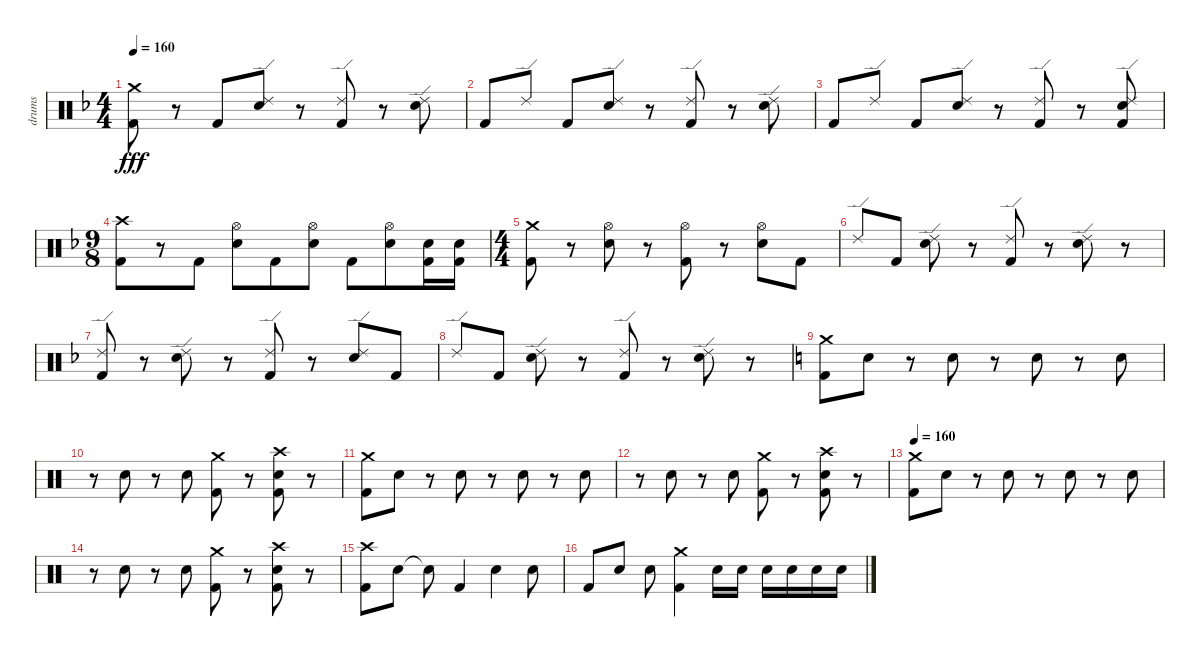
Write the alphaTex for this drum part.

\track ("drums" "drums") {instrument percussion}
\staff {score}
\articulation defaults
\ts (4 4)
\tempo 160
\clef neutral
\ks f
("Crash medium (hit)" "Kick (hit) 2").8{dy fff} r.8 "Kick (hit) 2".8 ("Ride (edge) 2" "Electric Snare (hit)").8 r.8 ("Ride (edge) 2" "Kick (hit) 2").8 r.8 ("Ride (edge) 2" "Electric Snare (hit)").8 |
"Kick (hit) 2".8 "Ride (edge) 2".8 "Kick (hit) 2".8 ("Ride (edge) 2" "Electric Snare (hit)").8 r.8 ("Ride (edge) 2" "Kick (hit) 2").8 r.8 ("Ride (edge) 2" "Electric Snare (hit)").8 |
"Kick (hit) 2".8 "Ride (edge) 2".8 "Kick (hit) 2".8 ("Ride (edge) 2" "Electric Snare (hit)").8 r.8 ("Ride (edge) 2" "Kick (hit) 2").8 r.8 ("Ride (edge) 2" "Electric Snare (hit)" "Kick (hit) 2").8 |
\ts (9 8)
("Crash high (hit)" "Kick (hit) 2").8 r.8 "Kick (hit) 2".8 ("Hi-Hat (open)" "Electric Snare (hit)").8 "Kick (hit) 2".8 ("Hi-Hat (open)" "Electric Snare (hit)").8 "Kick (hit) 2".8 ("Hi-Hat (open)" "Electric Snare (hit)").8 ("Electric Snare (hit)" "Kick (hit) 2").16 ("Electric Snare (hit)" "Kick (hit) 2").16 |
\ts (4 4)
("Crash medium (hit)" "Kick (hit) 2").8 r.8 ("Hi-Hat (open)" "Electric Snare (hit)").8 r.8 ("Hi-Hat (open)" "Kick (hit) 2").8 r.8 ("Hi-Hat (open)" "Electric Snare (hit)").8 "Kick (hit) 2".8 |
"Ride (edge) 2".8 "Kick (hit) 2".8 ("Ride (edge) 2" "Electric Snare (hit)").8 r.8 ("Ride (edge) 2" "Kick (hit) 2").8 r.8 ("Ride (edge) 2" "Electric Snare (hit)").8 r.8 |
("Ride (edge) 2" "Kick (hit) 2").8 r.8 ("Ride (edge) 2" "Electric Snare (hit)").8 r.8 ("Ride (edge) 2" "Kick (hit) 2").8 r.8 ("Ride (edge) 2" "Electric Snare (hit)").8 "Kick (hit) 2".8 |
"Ride (edge) 2".8 "Kick (hit) 2".8 ("Ride (edge) 2" "Electric Snare (hit)").8 r.8 ("Ride (edge) 2" "Kick (hit) 2").8 r.8 ("Ride (edge) 2" "Electric Snare (hit)").8 r.8 |
\ks c
("Crash medium (hit)" "Kick (hit) 2").8 "Electric Snare (hit)".8 r.8 "Electric Snare (hit)".8 r.8 "Electric Snare (hit)".8 r.8 "Electric Snare (hit)".8 |
r.8 "Electric Snare (hit)".8 r.8 "Electric Snare (hit)".8 ("Crash medium (hit)" "Kick (hit) 2").8 r.8 ("Crash high (hit)" "Electric Snare (hit)" "Kick (hit) 2").8 r.8 |
("Crash medium (hit)" "Kick (hit) 2").8 "Electric Snare (hit)".8 r.8 "Electric Snare (hit)".8 r.8 "Electric Snare (hit)".8 r.8 "Electric Snare (hit)".8 |
r.8 "Electric Snare (hit)".8 r.8 "Electric Snare (hit)".8 ("Crash medium (hit)" "Kick (hit) 2").8 r.8 ("Crash high (hit)" "Electric Snare (hit)" "Kick (hit) 2").8 r.8 |
\tempo 160
("Crash medium (hit)" "Kick (hit) 2").8 "Electric Snare (hit)".8 r.8 "Electric Snare (hit)".8 r.8 "Electric Snare (hit)".8 r.8 "Electric Snare (hit)".8 |
r.8 "Electric Snare (hit)".8 r.8 "Electric Snare (hit)".8 ("Crash medium (hit)" "Kick (hit) 2").8 r.8 ("Crash high (hit)" "Electric Snare (hit)" "Kick (hit) 2").8 r.8 |
("Crash high (hit)" "Kick (hit) 2").8 "Electric Snare (hit)".8 "Snare (hit)"{t}.8 "Kick (hit) 2".4 "Electric Snare (hit)".4 "Electric Snare (hit)".8 |
"Kick (hit) 2".8 "Electric Snare (hit)".8 "Electric Snare (hit)".8 ("Crash medium (hit)" "Kick (hit) 2").4 "Electric Snare (hit)".16 "Electric Snare (hit)".16 "Electric Snare (hit)".16 "Electric Snare (hit)".16 "Electric Snare (hit)".16 "Electric Snare (hit)".16
